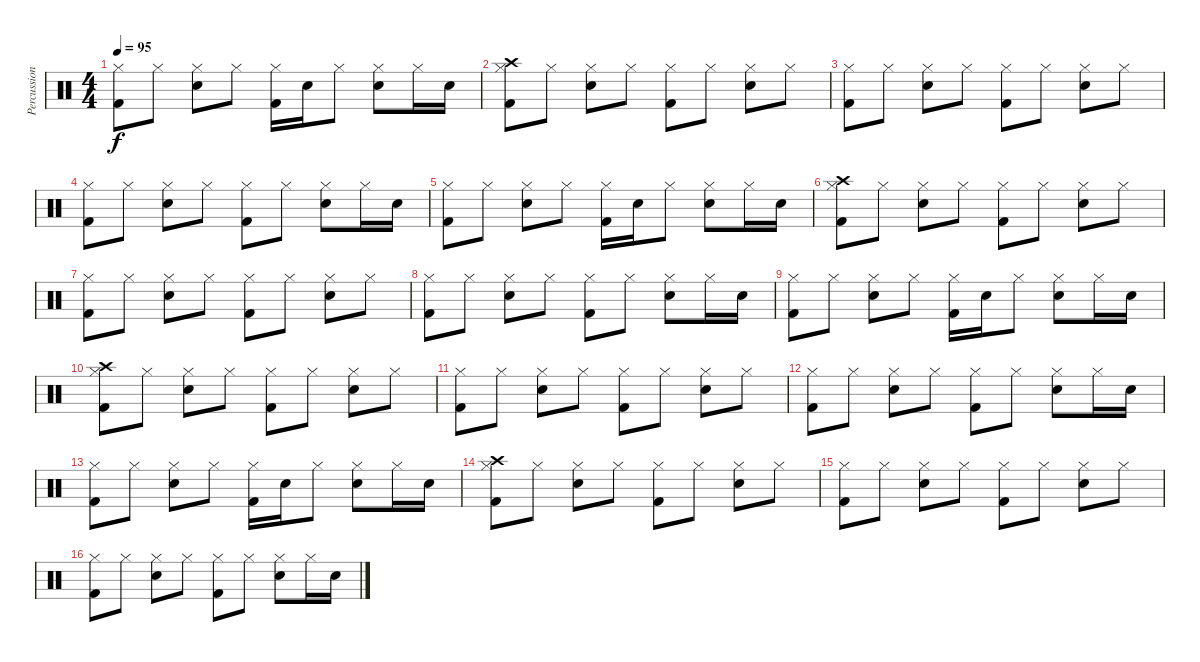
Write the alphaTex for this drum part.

\track ("Percussion" "Percussion") {instrument percussion}
\staff {score}
\articulation defaults
\ts (4 4)
\tempo 95
\clef neutral
\ks c
("Hi-Hat (closed)" "Kick (hit) 2").8{dy f} "Hi-Hat (closed)".8 ("Hi-Hat (closed)" "Electric Snare (hit)").8 "Hi-Hat (closed)".8 ("Hi-Hat (closed)" "Kick (hit) 2").16 "Electric Snare (hit)".16 "Hi-Hat (closed)".8 ("Hi-Hat (closed)" "Electric Snare (hit)").8 "Hi-Hat (closed)".16 "Electric Snare (hit)".16 |
("Crash high (hit)" "Hi-Hat (closed)" "Kick (hit) 2").8 "Hi-Hat (closed)".8 ("Hi-Hat (closed)" "Electric Snare (hit)").8 "Hi-Hat (closed)".8 ("Hi-Hat (closed)" "Kick (hit) 2").8 "Hi-Hat (closed)".8 ("Hi-Hat (closed)" "Electric Snare (hit)").8 "Hi-Hat (closed)".8 |
("Hi-Hat (closed)" "Kick (hit) 2").8 "Hi-Hat (closed)".8 ("Hi-Hat (closed)" "Electric Snare (hit)").8 "Hi-Hat (closed)".8 ("Hi-Hat (closed)" "Kick (hit) 2").8 "Hi-Hat (closed)".8 ("Hi-Hat (closed)" "Electric Snare (hit)").8 "Hi-Hat (closed)".8 |
("Hi-Hat (closed)" "Kick (hit) 2").8 "Hi-Hat (closed)".8 ("Hi-Hat (closed)" "Electric Snare (hit)").8 "Hi-Hat (closed)".8 ("Hi-Hat (closed)" "Kick (hit) 2").8 "Hi-Hat (closed)".8 ("Hi-Hat (closed)" "Electric Snare (hit)").8 "Hi-Hat (closed)".16 "Electric Snare (hit)".16 |
("Hi-Hat (closed)" "Kick (hit) 2").8 "Hi-Hat (closed)".8 ("Hi-Hat (closed)" "Electric Snare (hit)").8 "Hi-Hat (closed)".8 ("Hi-Hat (closed)" "Kick (hit) 2").16 "Electric Snare (hit)".16 "Hi-Hat (closed)".8 ("Hi-Hat (closed)" "Electric Snare (hit)").8 "Hi-Hat (closed)".16 "Electric Snare (hit)".16 |
("Crash high (hit)" "Hi-Hat (closed)" "Kick (hit) 2").8 "Hi-Hat (closed)".8 ("Hi-Hat (closed)" "Electric Snare (hit)").8 "Hi-Hat (closed)".8 ("Hi-Hat (closed)" "Kick (hit) 2").8 "Hi-Hat (closed)".8 ("Hi-Hat (closed)" "Electric Snare (hit)").8 "Hi-Hat (closed)".8 |
("Hi-Hat (closed)" "Kick (hit) 2").8 "Hi-Hat (closed)".8 ("Hi-Hat (closed)" "Electric Snare (hit)").8 "Hi-Hat (closed)".8 ("Hi-Hat (closed)" "Kick (hit) 2").8 "Hi-Hat (closed)".8 ("Hi-Hat (closed)" "Electric Snare (hit)").8 "Hi-Hat (closed)".8 |
("Hi-Hat (closed)" "Kick (hit) 2").8 "Hi-Hat (closed)".8 ("Hi-Hat (closed)" "Electric Snare (hit)").8 "Hi-Hat (closed)".8 ("Hi-Hat (closed)" "Kick (hit) 2").8 "Hi-Hat (closed)".8 ("Hi-Hat (closed)" "Electric Snare (hit)").8 "Hi-Hat (closed)".16 "Electric Snare (hit)".16 |
("Hi-Hat (closed)" "Kick (hit) 2").8 "Hi-Hat (closed)".8 ("Hi-Hat (closed)" "Electric Snare (hit)").8 "Hi-Hat (closed)".8 ("Hi-Hat (closed)" "Kick (hit) 2").16 "Electric Snare (hit)".16 "Hi-Hat (closed)".8 ("Hi-Hat (closed)" "Electric Snare (hit)").8 "Hi-Hat (closed)".16 "Electric Snare (hit)".16 |
("Crash high (hit)" "Hi-Hat (closed)" "Kick (hit) 2").8 "Hi-Hat (closed)".8 ("Hi-Hat (closed)" "Electric Snare (hit)").8 "Hi-Hat (closed)".8 ("Hi-Hat (closed)" "Kick (hit) 2").8 "Hi-Hat (closed)".8 ("Hi-Hat (closed)" "Electric Snare (hit)").8 "Hi-Hat (closed)".8 |
("Hi-Hat (closed)" "Kick (hit) 2").8 "Hi-Hat (closed)".8 ("Hi-Hat (closed)" "Electric Snare (hit)").8 "Hi-Hat (closed)".8 ("Hi-Hat (closed)" "Kick (hit) 2").8 "Hi-Hat (closed)".8 ("Hi-Hat (closed)" "Electric Snare (hit)").8 "Hi-Hat (closed)".8 |
("Hi-Hat (closed)" "Kick (hit) 2").8 "Hi-Hat (closed)".8 ("Hi-Hat (closed)" "Electric Snare (hit)").8 "Hi-Hat (closed)".8 ("Hi-Hat (closed)" "Kick (hit) 2").8 "Hi-Hat (closed)".8 ("Hi-Hat (closed)" "Electric Snare (hit)").8 "Hi-Hat (closed)".16 "Electric Snare (hit)".16 |
("Hi-Hat (closed)" "Kick (hit) 2").8 "Hi-Hat (closed)".8 ("Hi-Hat (closed)" "Electric Snare (hit)").8 "Hi-Hat (closed)".8 ("Hi-Hat (closed)" "Kick (hit) 2").16 "Electric Snare (hit)".16 "Hi-Hat (closed)".8 ("Hi-Hat (closed)" "Electric Snare (hit)").8 "Hi-Hat (closed)".16 "Electric Snare (hit)".16 |
("Crash high (hit)" "Hi-Hat (closed)" "Kick (hit) 2").8 "Hi-Hat (closed)".8 ("Hi-Hat (closed)" "Electric Snare (hit)").8 "Hi-Hat (closed)".8 ("Hi-Hat (closed)" "Kick (hit) 2").8 "Hi-Hat (closed)".8 ("Hi-Hat (closed)" "Electric Snare (hit)").8 "Hi-Hat (closed)".8 |
("Hi-Hat (closed)" "Kick (hit) 2").8 "Hi-Hat (closed)".8 ("Hi-Hat (closed)" "Electric Snare (hit)").8 "Hi-Hat (closed)".8 ("Hi-Hat (closed)" "Kick (hit) 2").8 "Hi-Hat (closed)".8 ("Hi-Hat (closed)" "Electric Snare (hit)").8 "Hi-Hat (closed)".8 |
("Hi-Hat (closed)" "Kick (hit) 2").8 "Hi-Hat (closed)".8 ("Hi-Hat (closed)" "Electric Snare (hit)").8 "Hi-Hat (closed)".8 ("Hi-Hat (closed)" "Kick (hit) 2").8 "Hi-Hat (closed)".8 ("Hi-Hat (closed)" "Electric Snare (hit)").8 "Hi-Hat (closed)".16 "Electric Snare (hit)".16
